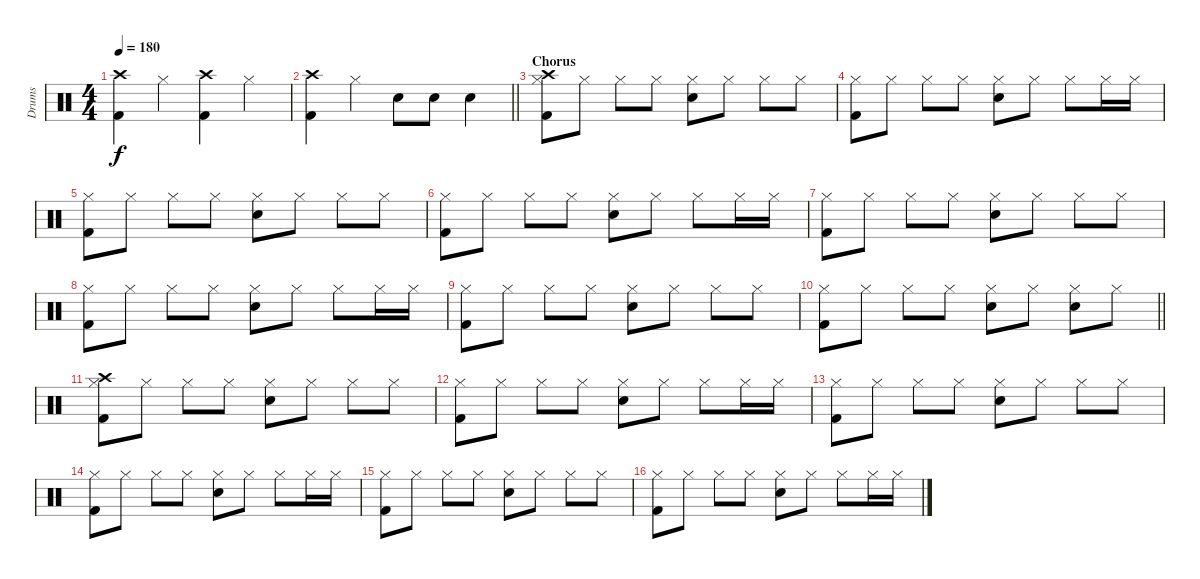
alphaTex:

\track ("Drums" "Drums") {instrument percussion}
\staff
\articulation defaults
\ts (4 4)
\tempo 180
\clef neutral
\ks c
("Crash high (hit)" "Kick (hit) 2").4{dy f} "Hi-Hat (closed)".4 ("Crash high (hit)" "Kick (hit) 2").4 "Hi-Hat (closed)".4 |
\barLineRight lightlight
("Crash high (hit)" "Kick (hit) 2").4 "Hi-Hat (closed)".4 "Electric Snare (hit)".8 "Electric Snare (hit)".8 "Electric Snare (hit)".4 |
\section ("" "Chorus")
("Crash high (hit)" "Hi-Hat (closed)" "Kick (hit) 2").8 "Hi-Hat (closed)".8 "Hi-Hat (closed)".8 "Hi-Hat (closed)".8 ("Hi-Hat (closed)" "Electric Snare (hit)").8 "Hi-Hat (closed)".8 "Hi-Hat (closed)".8 "Hi-Hat (closed)".8 |
("Hi-Hat (closed)" "Kick (hit) 2").8 "Hi-Hat (closed)".8 "Hi-Hat (closed)".8 "Hi-Hat (closed)".8 ("Hi-Hat (closed)" "Electric Snare (hit)").8 "Hi-Hat (closed)".8 "Hi-Hat (closed)".8 "Hi-Hat (closed)".16 "Hi-Hat (closed)".16 |
("Hi-Hat (closed)" "Kick (hit) 2").8 "Hi-Hat (closed)".8 "Hi-Hat (closed)".8 "Hi-Hat (closed)".8 ("Hi-Hat (closed)" "Electric Snare (hit)").8 "Hi-Hat (closed)".8 "Hi-Hat (closed)".8 "Hi-Hat (closed)".8 |
("Hi-Hat (closed)" "Kick (hit) 2").8 "Hi-Hat (closed)".8 "Hi-Hat (closed)".8 "Hi-Hat (closed)".8 ("Hi-Hat (closed)" "Electric Snare (hit)").8 "Hi-Hat (closed)".8 "Hi-Hat (closed)".8 "Hi-Hat (closed)".16 "Hi-Hat (closed)".16 |
("Hi-Hat (closed)" "Kick (hit) 2").8 "Hi-Hat (closed)".8 "Hi-Hat (closed)".8 "Hi-Hat (closed)".8 ("Hi-Hat (closed)" "Electric Snare (hit)").8 "Hi-Hat (closed)".8 "Hi-Hat (closed)".8 "Hi-Hat (closed)".8 |
("Hi-Hat (closed)" "Kick (hit) 2").8 "Hi-Hat (closed)".8 "Hi-Hat (closed)".8 "Hi-Hat (closed)".8 ("Hi-Hat (closed)" "Electric Snare (hit)").8 "Hi-Hat (closed)".8 "Hi-Hat (closed)".8 "Hi-Hat (closed)".16 "Hi-Hat (closed)".16 |
("Hi-Hat (closed)" "Kick (hit) 2").8 "Hi-Hat (closed)".8 "Hi-Hat (closed)".8 "Hi-Hat (closed)".8 ("Hi-Hat (closed)" "Electric Snare (hit)").8 "Hi-Hat (closed)".8 "Hi-Hat (closed)".8 "Hi-Hat (closed)".8 |
\barLineRight lightlight
("Hi-Hat (closed)" "Kick (hit) 2").8 "Hi-Hat (closed)".8 "Hi-Hat (closed)".8 "Hi-Hat (closed)".8 ("Hi-Hat (closed)" "Electric Snare (hit)").8 "Hi-Hat (closed)".8 ("Hi-Hat (closed)" "Electric Snare (hit)").8 "Hi-Hat (closed)".8 |
("Crash high (hit)" "Hi-Hat (closed)" "Kick (hit) 2").8 "Hi-Hat (closed)".8 "Hi-Hat (closed)".8 "Hi-Hat (closed)".8 ("Hi-Hat (closed)" "Electric Snare (hit)").8 "Hi-Hat (closed)".8 "Hi-Hat (closed)".8 "Hi-Hat (closed)".8 |
("Hi-Hat (closed)" "Kick (hit) 2").8 "Hi-Hat (closed)".8 "Hi-Hat (closed)".8 "Hi-Hat (closed)".8 ("Hi-Hat (closed)" "Electric Snare (hit)").8 "Hi-Hat (closed)".8 "Hi-Hat (closed)".8 "Hi-Hat (closed)".16 "Hi-Hat (closed)".16 |
("Hi-Hat (closed)" "Kick (hit) 2").8 "Hi-Hat (closed)".8 "Hi-Hat (closed)".8 "Hi-Hat (closed)".8 ("Hi-Hat (closed)" "Electric Snare (hit)").8 "Hi-Hat (closed)".8 "Hi-Hat (closed)".8 "Hi-Hat (closed)".8 |
("Hi-Hat (closed)" "Kick (hit) 2").8 "Hi-Hat (closed)".8 "Hi-Hat (closed)".8 "Hi-Hat (closed)".8 ("Hi-Hat (closed)" "Electric Snare (hit)").8 "Hi-Hat (closed)".8 "Hi-Hat (closed)".8 "Hi-Hat (closed)".16 "Hi-Hat (closed)".16 |
("Hi-Hat (closed)" "Kick (hit) 2").8 "Hi-Hat (closed)".8 "Hi-Hat (closed)".8 "Hi-Hat (closed)".8 ("Hi-Hat (closed)" "Electric Snare (hit)").8 "Hi-Hat (closed)".8 "Hi-Hat (closed)".8 "Hi-Hat (closed)".8 |
("Hi-Hat (closed)" "Kick (hit) 2").8 "Hi-Hat (closed)".8 "Hi-Hat (closed)".8 "Hi-Hat (closed)".8 ("Hi-Hat (closed)" "Electric Snare (hit)").8 "Hi-Hat (closed)".8 "Hi-Hat (closed)".8 "Hi-Hat (closed)".16 "Hi-Hat (closed)".16
